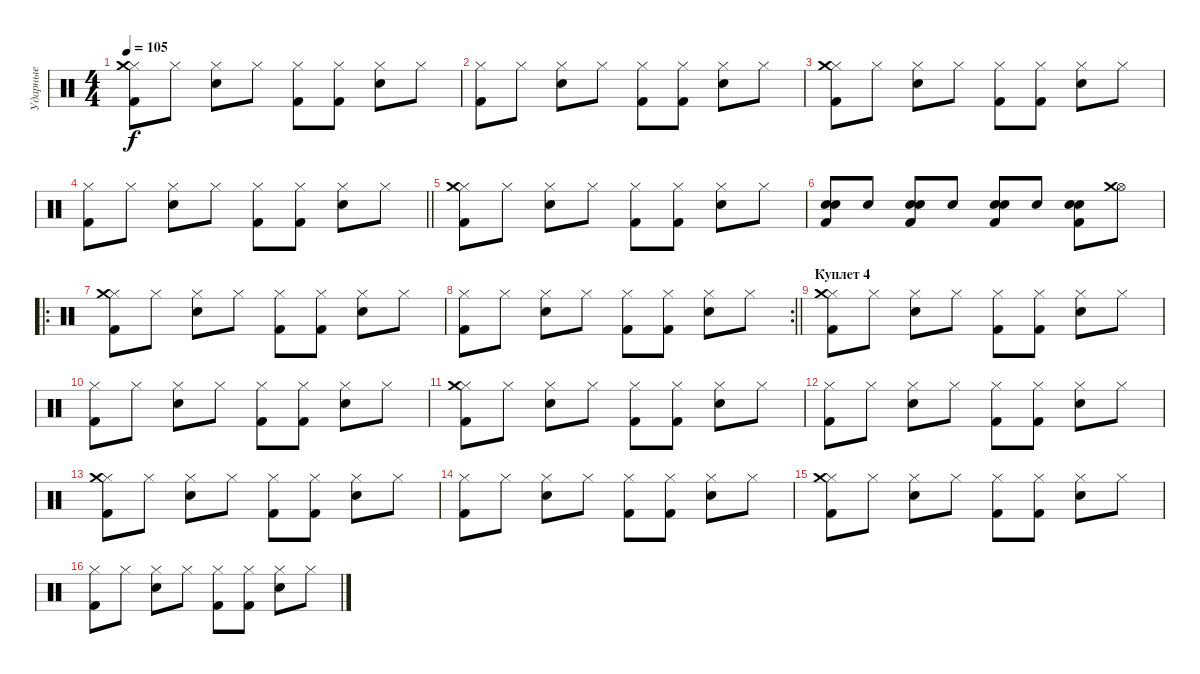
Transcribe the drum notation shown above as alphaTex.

\track ("Ударные" "Ударные") {instrument percussion}
\staff {score}
\articulation defaults
\ts (4 4)
\tempo 105
\clef neutral
\ks c
("Hi-Hat (closed)" "Kick (hit) 2" "Crash medium (hit)").8{dy f} "Hi-Hat (closed)".8 ("Hi-Hat (closed)" "Electric Snare (hit)").8 "Hi-Hat (closed)".8 ("Hi-Hat (closed)" "Kick (hit) 2").8 ("Hi-Hat (closed)" "Kick (hit) 2").8 ("Hi-Hat (closed)" "Electric Snare (hit)").8 "Hi-Hat (closed)".8 |
("Hi-Hat (closed)" "Kick (hit) 2").8 "Hi-Hat (closed)".8 ("Hi-Hat (closed)" "Electric Snare (hit)").8 "Hi-Hat (closed)".8 ("Hi-Hat (closed)" "Kick (hit) 2").8 ("Hi-Hat (closed)" "Kick (hit) 2").8 ("Hi-Hat (closed)" "Electric Snare (hit)").8 "Hi-Hat (closed)".8 |
("Hi-Hat (closed)" "Kick (hit) 2" "Crash medium (hit)").8 "Hi-Hat (closed)".8 ("Hi-Hat (closed)" "Electric Snare (hit)").8 "Hi-Hat (closed)".8 ("Hi-Hat (closed)" "Kick (hit) 2").8 ("Hi-Hat (closed)" "Kick (hit) 2").8 ("Hi-Hat (closed)" "Electric Snare (hit)").8 "Hi-Hat (closed)".8 |
\barLineRight lightlight
("Hi-Hat (closed)" "Kick (hit) 2").8 "Hi-Hat (closed)".8 ("Hi-Hat (closed)" "Electric Snare (hit)").8 "Hi-Hat (closed)".8 ("Hi-Hat (closed)" "Kick (hit) 2").8 ("Hi-Hat (closed)" "Kick (hit) 2").8 ("Hi-Hat (closed)" "Electric Snare (hit)").8 "Hi-Hat (closed)".8 |
\section ("" "")
("Hi-Hat (closed)" "Kick (hit) 2" "Crash medium (hit)").8 "Hi-Hat (closed)".8 ("Hi-Hat (closed)" "Electric Snare (hit)").8 "Hi-Hat (closed)".8 ("Hi-Hat (closed)" "Kick (hit) 2").8 ("Hi-Hat (closed)" "Kick (hit) 2").8 ("Hi-Hat (closed)" "Electric Snare (hit)").8 "Hi-Hat (closed)".8 |
("Electric Snare (hit)" "Kick (hit) 2" "Electric Snare (hit)").8 "Electric Snare (hit)".8 ("Electric Snare (hit)" "Kick (hit) 2" "Electric Snare (hit)").8 "Electric Snare (hit)".8 ("Electric Snare (hit)" "Kick (hit) 2" "Electric Snare (hit)").8 "Electric Snare (hit)".8 ("Electric Snare (hit)" "Kick (hit) 2" "Electric Snare (hit)").8 ("Hi-Hat (open)" "Crash medium (hit)").8 |
\ro
("Hi-Hat (closed)" "Kick (hit) 2" "Crash medium (hit)").8 "Hi-Hat (closed)".8 ("Hi-Hat (closed)" "Electric Snare (hit)").8 "Hi-Hat (closed)".8 ("Hi-Hat (closed)" "Kick (hit) 2").8 ("Hi-Hat (closed)" "Kick (hit) 2").8 ("Hi-Hat (closed)" "Electric Snare (hit)").8 "Hi-Hat (closed)".8 |
\rc 2
\barLineRight lightlight
("Hi-Hat (closed)" "Kick (hit) 2").8 "Hi-Hat (closed)".8 ("Hi-Hat (closed)" "Electric Snare (hit)").8 "Hi-Hat (closed)".8 ("Hi-Hat (closed)" "Kick (hit) 2").8 ("Hi-Hat (closed)" "Kick (hit) 2").8 ("Hi-Hat (closed)" "Electric Snare (hit)").8 "Hi-Hat (closed)".8 |
\section ("" "Куплет 4")
("Hi-Hat (closed)" "Kick (hit) 2" "Crash medium (hit)").8 "Hi-Hat (closed)".8 ("Hi-Hat (closed)" "Electric Snare (hit)").8 "Hi-Hat (closed)".8 ("Hi-Hat (closed)" "Kick (hit) 2").8 ("Hi-Hat (closed)" "Kick (hit) 2").8 ("Hi-Hat (closed)" "Electric Snare (hit)").8 "Hi-Hat (closed)".8 |
("Hi-Hat (closed)" "Kick (hit) 2").8 "Hi-Hat (closed)".8 ("Hi-Hat (closed)" "Electric Snare (hit)").8 "Hi-Hat (closed)".8 ("Hi-Hat (closed)" "Kick (hit) 2").8 ("Hi-Hat (closed)" "Kick (hit) 2").8 ("Hi-Hat (closed)" "Electric Snare (hit)").8 "Hi-Hat (closed)".8 |
("Hi-Hat (closed)" "Kick (hit) 2" "Crash medium (hit)").8 "Hi-Hat (closed)".8 ("Hi-Hat (closed)" "Electric Snare (hit)").8 "Hi-Hat (closed)".8 ("Hi-Hat (closed)" "Kick (hit) 2").8 ("Hi-Hat (closed)" "Kick (hit) 2").8 ("Hi-Hat (closed)" "Electric Snare (hit)").8 "Hi-Hat (closed)".8 |
("Hi-Hat (closed)" "Kick (hit) 2").8 "Hi-Hat (closed)".8 ("Hi-Hat (closed)" "Electric Snare (hit)").8 "Hi-Hat (closed)".8 ("Hi-Hat (closed)" "Kick (hit) 2").8 ("Hi-Hat (closed)" "Kick (hit) 2").8 ("Hi-Hat (closed)" "Electric Snare (hit)").8 "Hi-Hat (closed)".8 |
("Hi-Hat (closed)" "Kick (hit) 2" "Crash medium (hit)").8 "Hi-Hat (closed)".8 ("Hi-Hat (closed)" "Electric Snare (hit)").8 "Hi-Hat (closed)".8 ("Hi-Hat (closed)" "Kick (hit) 2").8 ("Hi-Hat (closed)" "Kick (hit) 2").8 ("Hi-Hat (closed)" "Electric Snare (hit)").8 "Hi-Hat (closed)".8 |
("Hi-Hat (closed)" "Kick (hit) 2").8 "Hi-Hat (closed)".8 ("Hi-Hat (closed)" "Electric Snare (hit)").8 "Hi-Hat (closed)".8 ("Hi-Hat (closed)" "Kick (hit) 2").8 ("Hi-Hat (closed)" "Kick (hit) 2").8 ("Hi-Hat (closed)" "Electric Snare (hit)").8 "Hi-Hat (closed)".8 |
("Hi-Hat (closed)" "Kick (hit) 2" "Crash medium (hit)").8 "Hi-Hat (closed)".8 ("Hi-Hat (closed)" "Electric Snare (hit)").8 "Hi-Hat (closed)".8 ("Hi-Hat (closed)" "Kick (hit) 2").8 ("Hi-Hat (closed)" "Kick (hit) 2").8 ("Hi-Hat (closed)" "Electric Snare (hit)").8 "Hi-Hat (closed)".8 |
("Hi-Hat (closed)" "Kick (hit) 2").8 "Hi-Hat (closed)".8 ("Hi-Hat (closed)" "Electric Snare (hit)").8 "Hi-Hat (closed)".8 ("Hi-Hat (closed)" "Kick (hit) 2").8 ("Hi-Hat (closed)" "Kick (hit) 2").8 ("Hi-Hat (closed)" "Electric Snare (hit)").8 "Hi-Hat (closed)".8
